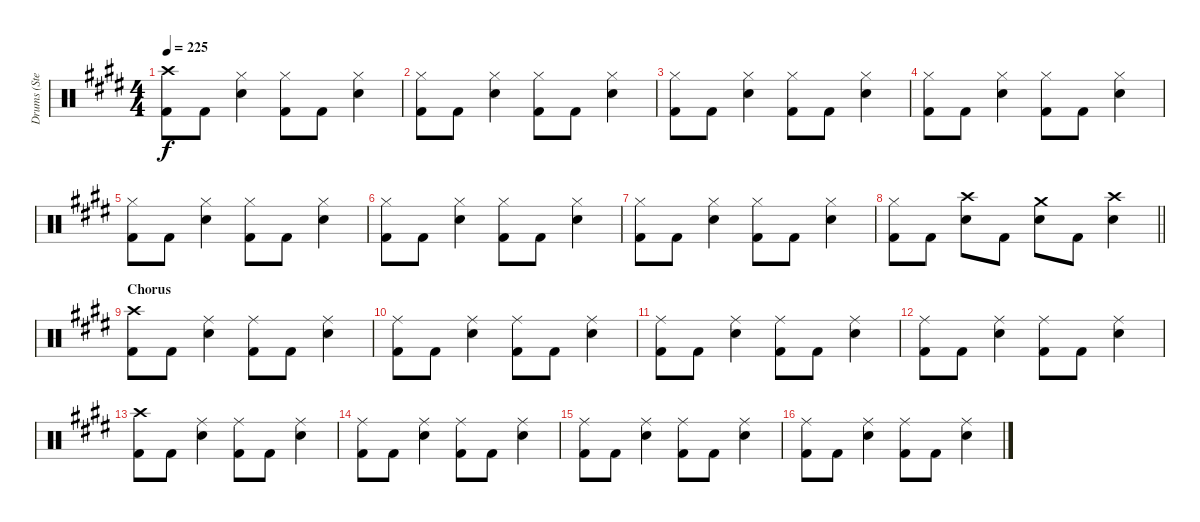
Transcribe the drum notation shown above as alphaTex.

\track ("Drums (Steven)" "Drums (Ste") {instrument percussion}
\staff {score}
\articulation defaults
\ts (4 4)
\tempo 225
\clef neutral
\ks e
("Crash high (hit)" "Kick (hit) 2").8{dy f} "Kick (hit) 2".8 ("Hi-Hat (closed)" "Snare (hit) 2").4 ("Hi-Hat (closed)" "Kick (hit) 2").8 "Kick (hit) 2".8 ("Hi-Hat (closed)" "Snare (hit) 2").4 |
("Hi-Hat (closed)" "Kick (hit) 2").8 "Kick (hit) 2".8 ("Hi-Hat (closed)" "Snare (hit) 2").4 ("Hi-Hat (closed)" "Kick (hit) 2").8 "Kick (hit) 2".8 ("Hi-Hat (closed)" "Snare (hit) 2").4 |
("Hi-Hat (closed)" "Kick (hit) 2").8 "Kick (hit) 2".8 ("Hi-Hat (closed)" "Snare (hit) 2").4 ("Hi-Hat (closed)" "Kick (hit) 2").8 "Kick (hit) 2".8 ("Hi-Hat (closed)" "Snare (hit) 2").4 |
("Hi-Hat (closed)" "Kick (hit) 2").8 "Kick (hit) 2".8 ("Hi-Hat (closed)" "Snare (hit) 2").4 ("Hi-Hat (closed)" "Kick (hit) 2").8 "Kick (hit) 2".8 ("Hi-Hat (closed)" "Snare (hit) 2").4 |
("Hi-Hat (closed)" "Kick (hit) 2").8 "Kick (hit) 2".8 ("Hi-Hat (closed)" "Snare (hit) 2").4 ("Hi-Hat (closed)" "Kick (hit) 2").8 "Kick (hit) 2".8 ("Hi-Hat (closed)" "Snare (hit) 2").4 |
("Hi-Hat (closed)" "Kick (hit) 2").8 "Kick (hit) 2".8 ("Hi-Hat (closed)" "Snare (hit) 2").4 ("Hi-Hat (closed)" "Kick (hit) 2").8 "Kick (hit) 2".8 ("Hi-Hat (closed)" "Snare (hit) 2").4 |
("Hi-Hat (closed)" "Kick (hit) 2").8 "Kick (hit) 2".8 ("Hi-Hat (closed)" "Snare (hit) 2").4 ("Hi-Hat (closed)" "Kick (hit) 2").8 "Kick (hit) 2".8 ("Hi-Hat (closed)" "Snare (hit) 2").4 |
\barLineRight lightlight
("Hi-Hat (closed)" "Kick (hit) 2").8 "Kick (hit) 2".8 ("Crash high (hit)" "Snare (hit) 2").8 "Kick (hit) 2".8 ("Crash medium (hit)" "Snare (hit) 2").8 "Kick (hit) 2".8 ("Crash high (hit)" "Snare (hit) 2").4 |
\section ("" "Chorus")
("Crash high (hit)" "Kick (hit) 2").8 "Kick (hit) 2".8 ("Ride (middle)" "Snare (hit) 2").4 ("Ride (middle)" "Kick (hit) 2").8 "Kick (hit) 2".8 ("Ride (middle)" "Snare (hit) 2").4 |
("Ride (middle)" "Kick (hit) 2").8 "Kick (hit) 2".8 ("Ride (middle)" "Snare (hit) 2").4 ("Ride (middle)" "Kick (hit) 2").8 "Kick (hit) 2".8 ("Ride (middle)" "Snare (hit) 2").4 |
("Ride (middle)" "Kick (hit) 2").8 "Kick (hit) 2".8 ("Ride (middle)" "Snare (hit) 2").4 ("Ride (middle)" "Kick (hit) 2").8 "Kick (hit) 2".8 ("Ride (middle)" "Snare (hit) 2").4 |
("Ride (middle)" "Kick (hit) 2").8 "Kick (hit) 2".8 ("Ride (middle)" "Snare (hit) 2").4 ("Ride (middle)" "Kick (hit) 2").8 "Kick (hit) 2".8 ("Ride (middle)" "Snare (hit) 2").4 |
("Crash high (hit)" "Kick (hit) 2").8 "Kick (hit) 2".8 ("Ride (middle)" "Snare (hit) 2").4 ("Ride (middle)" "Kick (hit) 2").8 "Kick (hit) 2".8 ("Ride (middle)" "Snare (hit) 2").4 |
("Ride (middle)" "Kick (hit) 2").8 "Kick (hit) 2".8 ("Ride (middle)" "Snare (hit) 2").4 ("Ride (middle)" "Kick (hit) 2").8 "Kick (hit) 2".8 ("Ride (middle)" "Snare (hit) 2").4 |
("Ride (middle)" "Kick (hit) 2").8 "Kick (hit) 2".8 ("Ride (middle)" "Snare (hit) 2").4 ("Ride (middle)" "Kick (hit) 2").8 "Kick (hit) 2".8 ("Ride (middle)" "Snare (hit) 2").4 |
("Ride (middle)" "Kick (hit) 2").8 "Kick (hit) 2".8 ("Ride (middle)" "Snare (hit) 2").4 ("Ride (middle)" "Kick (hit) 2").8 "Kick (hit) 2".8 ("Ride (middle)" "Snare (hit) 2").4
